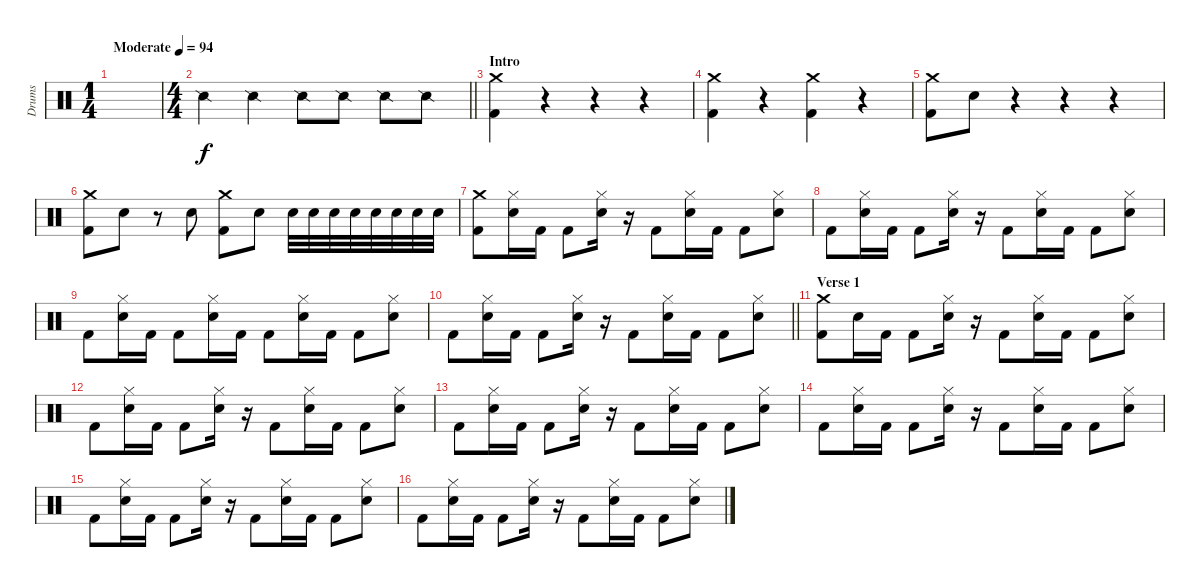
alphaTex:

\track ("Drums" "Drums") {instrument percussion}
\staff {score}
\articulation defaults
\ts (1 4)
\tempo (94 "Moderate")
\clef neutral
\ks c
|
\ts (4 4)
\barLineRight lightlight "Snare (side stick) 2".4 "Snare (side stick) 2".4 "Snare (side stick) 2".8 "Snare (side stick) 2".8 "Snare (side stick) 2".8 "Snare (side stick) 2".8
|
\section ("" "Intro")
("Crash medium (hit)" "Kick (hit) 2").4 r.4 r.4 r.4 |
("Crash medium (hit)" "Kick (hit) 2").4 r.4 ("Crash medium (hit)" "Kick (hit) 2").4 r.4 |
("Crash medium (hit)" "Kick (hit) 2").8 "Electric Snare (hit)".8 r.4 r.4 r.4 |
("Crash medium (hit)" "Kick (hit) 2").8 "Electric Snare (hit)".8 r.8 "Electric Snare (hit)".8 ("Crash medium (hit)" "Kick (hit) 2").8 "Electric Snare (hit)".8 "Electric Snare (hit)".32 "Electric Snare (hit)".32 "Electric Snare (hit)".32 "Electric Snare (hit)".32 "Electric Snare (hit)".32 "Electric Snare (hit)".32 "Electric Snare (hit)".32 "Electric Snare (hit)".32 |
("Crash medium (hit)" "Kick (hit) 2").8 ("Hi-Hat (closed)" "Electric Snare (hit)").16 "Kick (hit) 2".16 "Kick (hit) 2".8 ("Hi-Hat (closed)" "Electric Snare (hit)").16 r.16 "Kick (hit) 2".8 ("Hi-Hat (closed)" "Electric Snare (hit)").16 "Kick (hit) 2".16 "Kick (hit) 2".8 ("Hi-Hat (closed)" "Electric Snare (hit)").8 |
"Kick (hit) 2".8 ("Hi-Hat (closed)" "Electric Snare (hit)").16 "Kick (hit) 2".16 "Kick (hit) 2".8 ("Hi-Hat (closed)" "Electric Snare (hit)").16 r.16 "Kick (hit) 2".8 ("Hi-Hat (closed)" "Electric Snare (hit)").16 "Kick (hit) 2".16 "Kick (hit) 2".8 ("Hi-Hat (closed)" "Electric Snare (hit)").8 |
"Kick (hit) 2".8 ("Hi-Hat (closed)" "Electric Snare (hit)").16 "Kick (hit) 2".16 "Kick (hit) 2".8 ("Hi-Hat (closed)" "Electric Snare (hit)").16 "Kick (hit) 2".16 "Kick (hit) 2".8 ("Hi-Hat (closed)" "Electric Snare (hit)").16 "Kick (hit) 2".16 "Kick (hit) 2".8 ("Hi-Hat (closed)" "Electric Snare (hit)").8 |
\barLineRight lightlight "Kick (hit) 2".8
("Hi-Hat (closed)" "Electric Snare (hit)").16 "Kick (hit) 2".16 "Kick (hit) 2".8 ("Hi-Hat (closed)" "Electric Snare (hit)").16 r.16 "Kick (hit) 2".8 ("Hi-Hat (closed)" "Electric Snare (hit)").16 "Kick (hit) 2".16 "Kick (hit) 2".8 ("Hi-Hat (closed)" "Electric Snare (hit)").8 |
\section ("" "Verse 1")
("Crash medium (hit)" "Kick (hit) 2").8 "Electric Snare (hit)".16 "Kick (hit) 2".16 "Kick (hit) 2".8 ("Hi-Hat (closed)" "Electric Snare (hit)").16 r.16 "Kick (hit) 2".8 ("Hi-Hat (closed)" "Electric Snare (hit)").16 "Kick (hit) 2".16 "Kick (hit) 2".8 ("Hi-Hat (closed)" "Electric Snare (hit)").8 |
"Kick (hit) 2".8 ("Hi-Hat (closed)" "Electric Snare (hit)").16 "Kick (hit) 2".16 "Kick (hit) 2".8 ("Hi-Hat (closed)" "Electric Snare (hit)").16 r.16 "Kick (hit) 2".8 ("Hi-Hat (closed)" "Electric Snare (hit)").16 "Kick (hit) 2".16 "Kick (hit) 2".8 ("Hi-Hat (closed)" "Electric Snare (hit)").8 |
"Kick (hit) 2".8 ("Hi-Hat (closed)" "Electric Snare (hit)").16 "Kick (hit) 2".16 "Kick (hit) 2".8 ("Hi-Hat (closed)" "Electric Snare (hit)").16 r.16 "Kick (hit) 2".8 ("Hi-Hat (closed)" "Electric Snare (hit)").16 "Kick (hit) 2".16 "Kick (hit) 2".8 ("Hi-Hat (closed)" "Electric Snare (hit)").8 |
"Kick (hit) 2".8 ("Hi-Hat (closed)" "Electric Snare (hit)").16 "Kick (hit) 2".16 "Kick (hit) 2".8 ("Hi-Hat (closed)" "Electric Snare (hit)").16 r.16 "Kick (hit) 2".8 ("Hi-Hat (closed)" "Electric Snare (hit)").16 "Kick (hit) 2".16 "Kick (hit) 2".8 ("Hi-Hat (closed)" "Electric Snare (hit)").8 |
"Kick (hit) 2".8 ("Hi-Hat (closed)" "Electric Snare (hit)").16 "Kick (hit) 2".16 "Kick (hit) 2".8 ("Hi-Hat (closed)" "Electric Snare (hit)").16 r.16 "Kick (hit) 2".8 ("Hi-Hat (closed)" "Electric Snare (hit)").16 "Kick (hit) 2".16 "Kick (hit) 2".8 ("Hi-Hat (closed)" "Electric Snare (hit)").8 |
"Kick (hit) 2".8 ("Hi-Hat (closed)" "Electric Snare (hit)").16 "Kick (hit) 2".16 "Kick (hit) 2".8 ("Hi-Hat (closed)" "Electric Snare (hit)").16 r.16 "Kick (hit) 2".8 ("Hi-Hat (closed)" "Electric Snare (hit)").16 "Kick (hit) 2".16 "Kick (hit) 2".8 ("Hi-Hat (closed)" "Electric Snare (hit)").8
